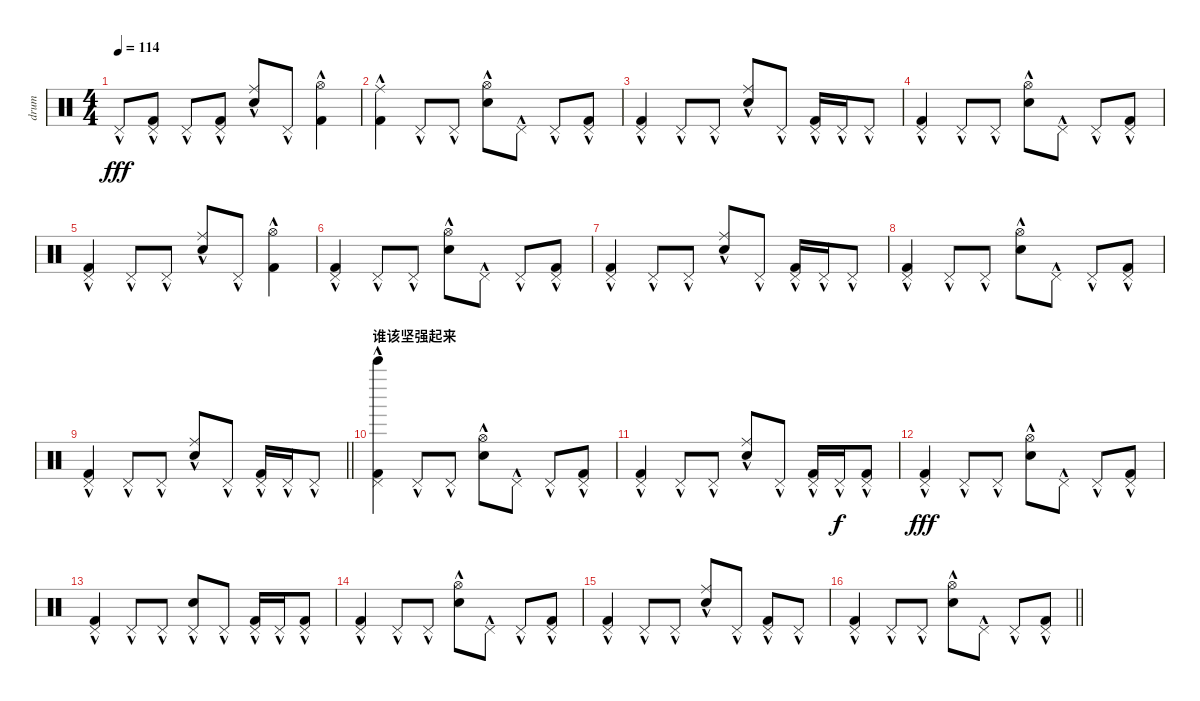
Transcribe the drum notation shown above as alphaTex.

\track ("drum" "drum") {instrument percussion}
\staff {score}
\articulation defaults
\ts (4 4)
\tempo 114
\clef neutral
\ks c "Pedal Hi-Hat (hit)"{hac}.8{dy fff}
("Pedal Hi-Hat (hit)"{hac} "Kick (hit) 2"{hac}).8 "Pedal Hi-Hat (hit)"{hac}.8 ("Pedal Hi-Hat (hit)"{hac} "Kick (hit) 2"{hac}).8 ("Ride (middle)"{hac} "Metronome (bell)"{hac}).8 "Pedal Hi-Hat (hit)"{hac}.8 ("Hi-Hat (open)"{hac} "Kick (hit) 2"{hac}).4 |
("Ride (middle)"{hac} "Kick (hit) 2"{hac}).4 "Pedal Hi-Hat (hit)"{hac}.8 "Pedal Hi-Hat (hit)"{hac}.8 ("Hi-Hat (open)"{hac} "Hand Clap (hit)"{hac}).8 "Pedal Hi-Hat (hit)"{hac}.8 "Pedal Hi-Hat (hit)"{hac}.8 ("Pedal Hi-Hat (hit)"{hac} "Kick (hit) 2"{hac}).8 |
("Pedal Hi-Hat (hit)"{hac} "Kick (hit) 2"{hac}).4 "Pedal Hi-Hat (hit)"{hac}.8 "Pedal Hi-Hat (hit)"{hac}.8 ("Ride (middle)"{hac} "Metronome (bell)"{hac}).8 "Pedal Hi-Hat (hit)"{hac}.8 ("Pedal Hi-Hat (hit)"{hac} "Kick (hit) 2"{hac}).16 "Pedal Hi-Hat (hit)"{hac}.16 "Pedal Hi-Hat (hit)"{hac}.8 |
("Pedal Hi-Hat (hit)"{hac} "Kick (hit) 2"{hac}).4 "Pedal Hi-Hat (hit)"{hac}.8 "Pedal Hi-Hat (hit)"{hac}.8 ("Hi-Hat (open)"{hac} "Hand Clap (hit)"{hac}).8 "Pedal Hi-Hat (hit)"{hac}.8 "Pedal Hi-Hat (hit)"{hac}.8 ("Pedal Hi-Hat (hit)"{hac} "Kick (hit) 2"{hac}).8 |
("Pedal Hi-Hat (hit)"{hac} "Kick (hit) 2"{hac}).4 "Pedal Hi-Hat (hit)"{hac}.8 "Pedal Hi-Hat (hit)"{hac}.8 ("Ride (middle)"{hac} "Metronome (bell)"{hac}).8 "Pedal Hi-Hat (hit)"{hac}.8 ("Hi-Hat (open)"{hac} "Kick (hit) 2"{hac}).4 |
("Pedal Hi-Hat (hit)"{hac} "Kick (hit) 2"{hac}).4 "Pedal Hi-Hat (hit)"{hac}.8 "Pedal Hi-Hat (hit)"{hac}.8 ("Hi-Hat (open)"{hac} "Hand Clap (hit)"{hac}).8 "Pedal Hi-Hat (hit)"{hac}.8 "Pedal Hi-Hat (hit)"{hac}.8 ("Pedal Hi-Hat (hit)"{hac} "Kick (hit) 2"{hac}).8 |
("Pedal Hi-Hat (hit)"{hac} "Kick (hit) 2"{hac}).4 "Pedal Hi-Hat (hit)"{hac}.8 "Pedal Hi-Hat (hit)"{hac}.8 ("Ride (middle)"{hac} "Metronome (bell)"{hac}).8 "Pedal Hi-Hat (hit)"{hac}.8 ("Pedal Hi-Hat (hit)"{hac} "Kick (hit) 2"{hac}).16 "Pedal Hi-Hat (hit)"{hac}.16 "Pedal Hi-Hat (hit)"{hac}.8 |
("Pedal Hi-Hat (hit)"{hac} "Kick (hit) 2"{hac}).4 "Pedal Hi-Hat (hit)"{hac}.8 "Pedal Hi-Hat (hit)"{hac}.8 ("Hi-Hat (open)"{hac} "Hand Clap (hit)"{hac}).8 "Pedal Hi-Hat (hit)"{hac}.8 "Pedal Hi-Hat (hit)"{hac}.8 ("Pedal Hi-Hat (hit)"{hac} "Kick (hit) 2"{hac}).8 |
\barLineRight lightlight
("Pedal Hi-Hat (hit)"{hac} "Kick (hit) 2"{hac}).4 "Pedal Hi-Hat (hit)"{hac}.8 "Pedal Hi-Hat (hit)"{hac}.8 ("Ride (middle)"{hac} "Metronome (bell)"{hac}).8 "Pedal Hi-Hat (hit)"{hac}.8 ("Pedal Hi-Hat (hit)"{hac} "Kick (hit) 2"{hac}).16 "Pedal Hi-Hat (hit)"{hac}.16 "Pedal Hi-Hat (hit)"{hac}.8 |
\section ("" "谁该坚强起来")
("Pedal Hi-Hat (hit)"{hac} "Bell Tree (hit)"{hac} "Kick (hit) 2"{hac}).4 "Pedal Hi-Hat (hit)"{hac}.8 "Pedal Hi-Hat (hit)"{hac}.8 ("Hi-Hat (open)"{hac} "Hand Clap (hit)"{hac}).8 "Pedal Hi-Hat (hit)"{hac}.8 "Pedal Hi-Hat (hit)"{hac}.8 ("Pedal Hi-Hat (hit)"{hac} "Kick (hit) 2"{hac}).8 |
("Pedal Hi-Hat (hit)"{hac} "Kick (hit) 2"{hac}).4 "Pedal Hi-Hat (hit)"{hac}.8 "Pedal Hi-Hat (hit)"{hac}.8 ("Ride (middle)"{hac} "Metronome (bell)"{hac}).8 "Pedal Hi-Hat (hit)"{hac}.8 ("Pedal Hi-Hat (hit)"{hac} "Kick (hit) 2"{hac}).16 "Pedal Hi-Hat (hit)"{hac}.16{dy f} ("Pedal Hi-Hat (hit)"{hac} "Kick (hit) 2"{hac}).8 |
("Pedal Hi-Hat (hit)"{hac} "Kick (hit) 2"{hac}).4{dy fff} "Pedal Hi-Hat (hit)"{hac}.8 "Pedal Hi-Hat (hit)"{hac}.8 ("Hi-Hat (open)"{hac} "Hand Clap (hit)"{hac}).8 "Pedal Hi-Hat (hit)"{hac}.8 "Pedal Hi-Hat (hit)"{hac}.8 ("Pedal Hi-Hat (hit)"{hac} "Kick (hit) 2"{hac}).8 |
("Pedal Hi-Hat (hit)"{hac} "Kick (hit) 2"{hac}).4 "Pedal Hi-Hat (hit)"{hac}.8 "Pedal Hi-Hat (hit)"{hac}.8 ("Pedal Hi-Hat (hit)"{hac} "Hand Clap (hit)"{hac}).8 "Pedal Hi-Hat (hit)"{hac}.8 ("Pedal Hi-Hat (hit)"{hac} "Kick (hit) 2"{hac}).16 "Pedal Hi-Hat (hit)"{hac}.16 ("Pedal Hi-Hat (hit)"{hac} "Kick (hit) 2"{hac}).8 |
("Pedal Hi-Hat (hit)"{hac} "Kick (hit) 2"{hac}).4 "Pedal Hi-Hat (hit)"{hac}.8 "Pedal Hi-Hat (hit)"{hac}.8 ("Hi-Hat (open)"{hac} "Hand Clap (hit)"{hac}).8 "Pedal Hi-Hat (hit)"{hac}.8 "Pedal Hi-Hat (hit)"{hac}.8 ("Pedal Hi-Hat (hit)"{hac} "Kick (hit) 2"{hac}).8 |
("Pedal Hi-Hat (hit)"{hac} "Kick (hit) 2"{hac}).4 "Pedal Hi-Hat (hit)"{hac}.8 "Pedal Hi-Hat (hit)"{hac}.8 ("Ride (middle)"{hac} "Metronome (bell)"{hac}).8 "Pedal Hi-Hat (hit)"{hac}.8 ("Pedal Hi-Hat (hit)"{hac} "Kick (hit) 2"{hac}).8 "Pedal Hi-Hat (hit)"{hac}.8 |
\barLineRight lightlight
("Pedal Hi-Hat (hit)"{hac} "Kick (hit) 2"{hac}).4 "Pedal Hi-Hat (hit)"{hac}.8 "Pedal Hi-Hat (hit)"{hac}.8 ("Hi-Hat (open)"{hac} "Hand Clap (hit)"{hac}).8 "Pedal Hi-Hat (hit)"{hac}.8 "Pedal Hi-Hat (hit)"{hac}.8 ("Pedal Hi-Hat (hit)"{hac} "Kick (hit) 2"{hac}).8
